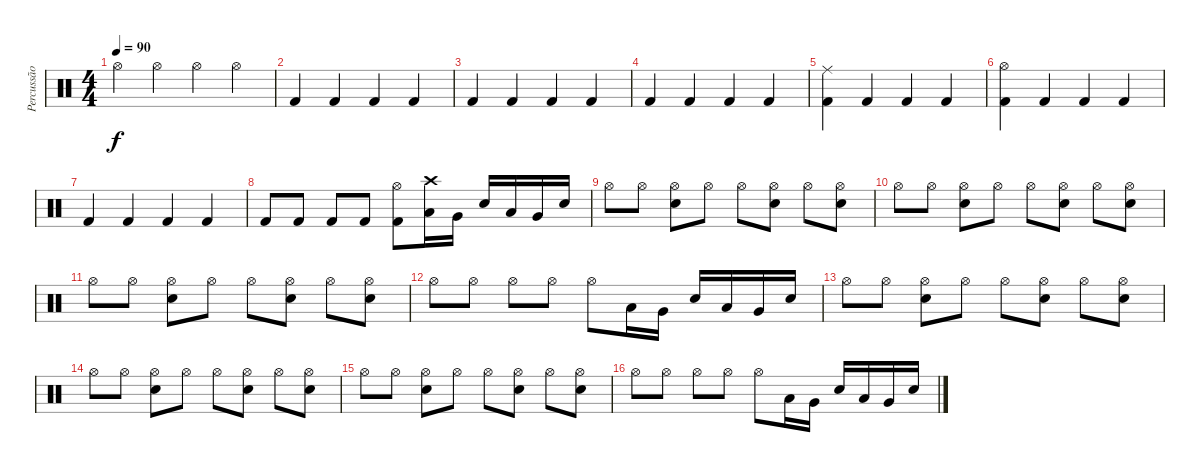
\track ("Percussão" "Percussão") {instrument percussion}
\staff {score}
\articulation defaults
\ts (4 4)
\tempo 90
\clef neutral
\ks c "Hi-Hat (open)".4{dy f} "Hi-Hat (open)".4 "Hi-Hat (open)".4 "Hi-Hat (open)".4
|
"Kick (hit) 2".4 "Kick (hit) 2".4 "Kick (hit) 2".4 "Kick (hit) 2".4 |
"Kick (hit) 2".4 "Kick (hit) 2".4 "Kick (hit) 2".4 "Kick (hit) 2".4 |
"Kick (hit) 2".4 "Kick (hit) 2".4 "Kick (hit) 2".4 "Kick (hit) 2".4 |
("Ride (middle)" "Kick (hit) 2").4 "Kick (hit) 2".4 "Kick (hit) 2".4 "Kick (hit) 2".4 |
("Hi-Hat (open)" "Kick (hit) 2").4 "Kick (hit) 2".4 "Kick (hit) 2".4 "Kick (hit) 2".4 |
"Kick (hit) 2".4 "Kick (hit) 2".4 "Kick (hit) 2".4 "Kick (hit) 2".4 |
"Kick (hit) 2".8 "Kick (hit) 2".8 "Kick (hit) 2".8 "Kick (hit) 2".8 ("Hi-Hat (open)" "Kick (hit) 2").8 ("Crash high (hit)" "Low Floor Tom (hit)").16 "Very Low Tom (hit)".16 "Electric Snare (hit)".16 "Low Floor Tom (hit)".16 "Very Low Tom (hit)".16 "Electric Snare (hit)".16 |
"Hi-Hat (open)".8 "Hi-Hat (open)".8 ("Electric Snare (hit)" "Hi-Hat (open)").8 "Hi-Hat (open)".8 "Hi-Hat (open)".8 ("Electric Snare (hit)" "Hi-Hat (open)").8 "Hi-Hat (open)".8 ("Electric Snare (hit)" "Hi-Hat (open)").8 |
"Hi-Hat (open)".8 "Hi-Hat (open)".8 ("Electric Snare (hit)" "Hi-Hat (open)").8 "Hi-Hat (open)".8 "Hi-Hat (open)".8 ("Electric Snare (hit)" "Hi-Hat (open)").8 "Hi-Hat (open)".8 ("Electric Snare (hit)" "Hi-Hat (open)").8 |
"Hi-Hat (open)".8 "Hi-Hat (open)".8 ("Electric Snare (hit)" "Hi-Hat (open)").8 "Hi-Hat (open)".8 "Hi-Hat (open)".8 ("Electric Snare (hit)" "Hi-Hat (open)").8 "Hi-Hat (open)".8 ("Electric Snare (hit)" "Hi-Hat (open)").8 |
"Hi-Hat (open)".8 "Hi-Hat (open)".8 "Hi-Hat (open)".8 "Hi-Hat (open)".8 "Hi-Hat (open)".8 "Low Floor Tom (hit)".16 "Very Low Tom (hit)".16 "Electric Snare (hit)".16 "Low Floor Tom (hit)".16 "Very Low Tom (hit)".16 "Electric Snare (hit)".16 |
"Hi-Hat (open)".8 "Hi-Hat (open)".8 ("Electric Snare (hit)" "Hi-Hat (open)").8 "Hi-Hat (open)".8 "Hi-Hat (open)".8 ("Electric Snare (hit)" "Hi-Hat (open)").8 "Hi-Hat (open)".8 ("Electric Snare (hit)" "Hi-Hat (open)").8 |
"Hi-Hat (open)".8 "Hi-Hat (open)".8 ("Electric Snare (hit)" "Hi-Hat (open)").8 "Hi-Hat (open)".8 "Hi-Hat (open)".8 ("Electric Snare (hit)" "Hi-Hat (open)").8 "Hi-Hat (open)".8 ("Electric Snare (hit)" "Hi-Hat (open)").8 |
"Hi-Hat (open)".8 "Hi-Hat (open)".8 ("Electric Snare (hit)" "Hi-Hat (open)").8 "Hi-Hat (open)".8 "Hi-Hat (open)".8 ("Electric Snare (hit)" "Hi-Hat (open)").8 "Hi-Hat (open)".8 ("Electric Snare (hit)" "Hi-Hat (open)").8 |
"Hi-Hat (open)".8 "Hi-Hat (open)".8 "Hi-Hat (open)".8 "Hi-Hat (open)".8 "Hi-Hat (open)".8 "Low Floor Tom (hit)".16 "Very Low Tom (hit)".16 "Electric Snare (hit)".16 "Low Floor Tom (hit)".16 "Very Low Tom (hit)".16 "Electric Snare (hit)".16
